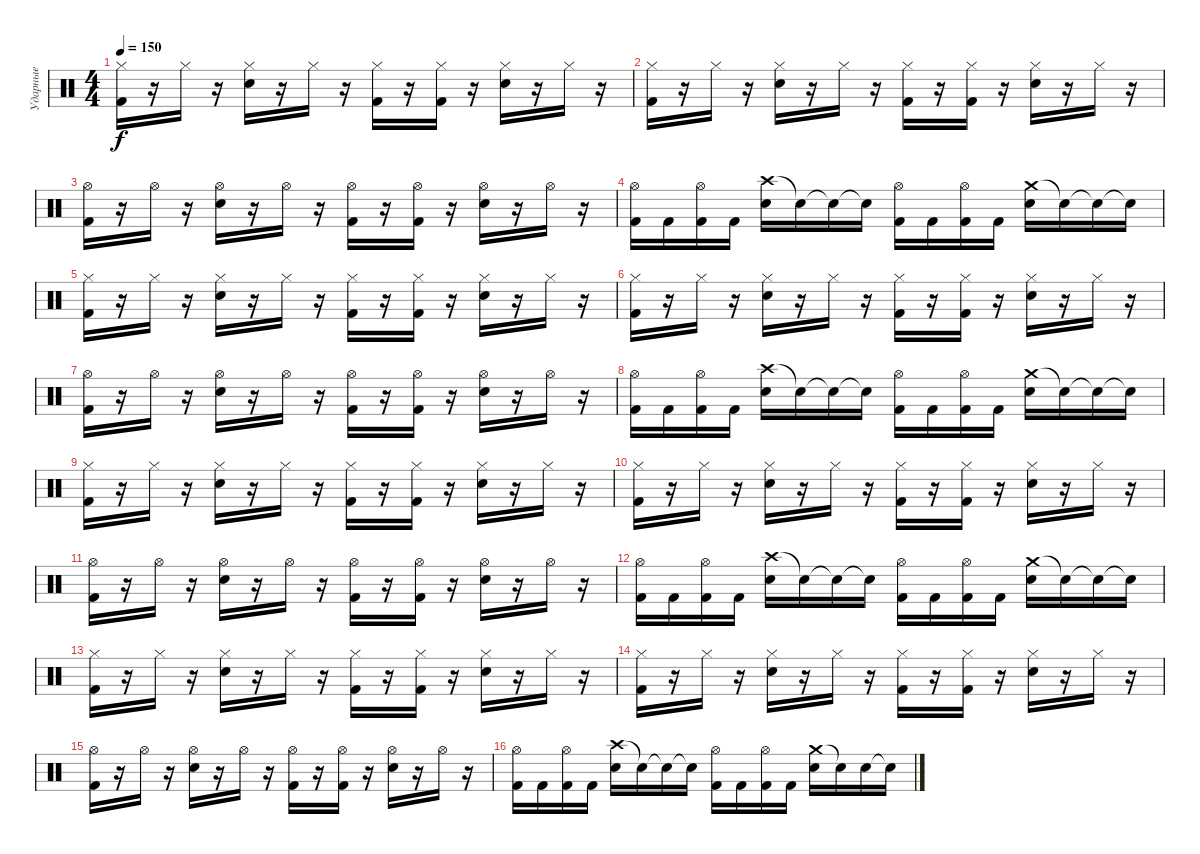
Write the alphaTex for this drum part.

\track ("Ударные" "Ударные") {instrument percussion}
\staff {score}
\articulation defaults
\ts (4 4)
\tempo 150
\clef neutral
\ks c
("Hi-Hat (closed)" "Kick (hit) 2").16{dy f} r.16 "Hi-Hat (closed)".16 r.16 ("Hi-Hat (closed)" "Snare (hit) 2").16 r.16 "Hi-Hat (closed)".16 r.16 ("Hi-Hat (closed)" "Kick (hit) 2").16 r.16 ("Hi-Hat (closed)" "Kick (hit) 2").16 r.16 ("Hi-Hat (closed)" "Snare (hit) 2").16 r.16 "Hi-Hat (closed)".16 r.16 |
("Hi-Hat (closed)" "Kick (hit) 2").16 r.16 "Hi-Hat (closed)".16 r.16 ("Hi-Hat (closed)" "Snare (hit) 2").16 r.16 "Hi-Hat (closed)".16 r.16 ("Hi-Hat (closed)" "Kick (hit) 2").16 r.16 ("Hi-Hat (closed)" "Kick (hit) 2").16 r.16 ("Hi-Hat (closed)" "Snare (hit) 2").16 r.16 "Hi-Hat (closed)".16 r.16 |
("Hi-Hat (open)" "Kick (hit) 2").16 r.16 "Hi-Hat (open)".16 r.16 ("Hi-Hat (open)" "Snare (hit) 2").16 r.16 "Hi-Hat (open)".16 r.16 ("Hi-Hat (open)" "Kick (hit) 2").16 r.16 ("Hi-Hat (open)" "Kick (hit) 2").16 r.16 ("Hi-Hat (open)" "Snare (hit) 2").16 r.16 "Hi-Hat (open)".16 r.16 |
("Hi-Hat (open)" "Kick (hit) 2").16 "Kick (hit) 2".16 ("Hi-Hat (open)" "Kick (hit) 2").16 "Kick (hit) 2".16 ("Crash high (hit)" "Snare (hit) 2").16 "Snare (hit)"{t}.16 "Snare (hit)"{t}.16 "Snare (hit)"{t}.16 ("Hi-Hat (open)" "Kick (hit) 2").16 "Kick (hit) 2".16 ("Hi-Hat (open)" "Kick (hit) 2").16 "Kick (hit) 2".16 ("Crash medium (hit)" "Snare (hit) 2").16 "Snare (hit)"{t}.16 "Snare (hit)"{t}.16 "Snare (hit)"{t}.16 |
("Hi-Hat (closed)" "Kick (hit) 2").16 r.16 "Hi-Hat (closed)".16 r.16 ("Hi-Hat (closed)" "Snare (hit) 2").16 r.16 "Hi-Hat (closed)".16 r.16 ("Hi-Hat (closed)" "Kick (hit) 2").16 r.16 ("Hi-Hat (closed)" "Kick (hit) 2").16 r.16 ("Hi-Hat (closed)" "Snare (hit) 2").16 r.16 "Hi-Hat (closed)".16 r.16 |
("Hi-Hat (closed)" "Kick (hit) 2").16 r.16 "Hi-Hat (closed)".16 r.16 ("Hi-Hat (closed)" "Snare (hit) 2").16 r.16 "Hi-Hat (closed)".16 r.16 ("Hi-Hat (closed)" "Kick (hit) 2").16 r.16 ("Hi-Hat (closed)" "Kick (hit) 2").16 r.16 ("Hi-Hat (closed)" "Snare (hit) 2").16 r.16 "Hi-Hat (closed)".16 r.16 |
("Hi-Hat (open)" "Kick (hit) 2").16 r.16 "Hi-Hat (open)".16 r.16 ("Hi-Hat (open)" "Snare (hit) 2").16 r.16 "Hi-Hat (open)".16 r.16 ("Hi-Hat (open)" "Kick (hit) 2").16 r.16 ("Hi-Hat (open)" "Kick (hit) 2").16 r.16 ("Hi-Hat (open)" "Snare (hit) 2").16 r.16 "Hi-Hat (open)".16 r.16 |
("Hi-Hat (open)" "Kick (hit) 2").16 "Kick (hit) 2".16 ("Hi-Hat (open)" "Kick (hit) 2").16 "Kick (hit) 2".16 ("Crash high (hit)" "Snare (hit) 2").16 "Snare (hit)"{t}.16 "Snare (hit)"{t}.16 "Snare (hit)"{t}.16 ("Hi-Hat (open)" "Kick (hit) 2").16 "Kick (hit) 2".16 ("Hi-Hat (open)" "Kick (hit) 2").16 "Kick (hit) 2".16 ("Crash medium (hit)" "Snare (hit) 2").16 "Snare (hit)"{t}.16 "Snare (hit)"{t}.16 "Snare (hit)"{t}.16 |
("Hi-Hat (closed)" "Kick (hit) 2").16 r.16 "Hi-Hat (closed)".16 r.16 ("Hi-Hat (closed)" "Snare (hit) 2").16 r.16 "Hi-Hat (closed)".16 r.16 ("Hi-Hat (closed)" "Kick (hit) 2").16 r.16 ("Hi-Hat (closed)" "Kick (hit) 2").16 r.16 ("Hi-Hat (closed)" "Snare (hit) 2").16 r.16 "Hi-Hat (closed)".16 r.16 |
("Hi-Hat (closed)" "Kick (hit) 2").16 r.16 "Hi-Hat (closed)".16 r.16 ("Hi-Hat (closed)" "Snare (hit) 2").16 r.16 "Hi-Hat (closed)".16 r.16 ("Hi-Hat (closed)" "Kick (hit) 2").16 r.16 ("Hi-Hat (closed)" "Kick (hit) 2").16 r.16 ("Hi-Hat (closed)" "Snare (hit) 2").16 r.16 "Hi-Hat (closed)".16 r.16 |
("Hi-Hat (open)" "Kick (hit) 2").16 r.16 "Hi-Hat (open)".16 r.16 ("Hi-Hat (open)" "Snare (hit) 2").16 r.16 "Hi-Hat (open)".16 r.16 ("Hi-Hat (open)" "Kick (hit) 2").16 r.16 ("Hi-Hat (open)" "Kick (hit) 2").16 r.16 ("Hi-Hat (open)" "Snare (hit) 2").16 r.16 "Hi-Hat (open)".16 r.16 |
("Hi-Hat (open)" "Kick (hit) 2").16 "Kick (hit) 2".16 ("Hi-Hat (open)" "Kick (hit) 2").16 "Kick (hit) 2".16 ("Crash high (hit)" "Snare (hit) 2").16 "Snare (hit)"{t}.16 "Snare (hit)"{t}.16 "Snare (hit)"{t}.16 ("Hi-Hat (open)" "Kick (hit) 2").16 "Kick (hit) 2".16 ("Hi-Hat (open)" "Kick (hit) 2").16 "Kick (hit) 2".16 ("Crash medium (hit)" "Snare (hit) 2").16 "Snare (hit)"{t}.16 "Snare (hit)"{t}.16 "Snare (hit)"{t}.16 |
("Hi-Hat (closed)" "Kick (hit) 2").16 r.16 "Hi-Hat (closed)".16 r.16 ("Hi-Hat (closed)" "Snare (hit) 2").16 r.16 "Hi-Hat (closed)".16 r.16 ("Hi-Hat (closed)" "Kick (hit) 2").16 r.16 ("Hi-Hat (closed)" "Kick (hit) 2").16 r.16 ("Hi-Hat (closed)" "Snare (hit) 2").16 r.16 "Hi-Hat (closed)".16 r.16 |
("Hi-Hat (closed)" "Kick (hit) 2").16 r.16 "Hi-Hat (closed)".16 r.16 ("Hi-Hat (closed)" "Snare (hit) 2").16 r.16 "Hi-Hat (closed)".16 r.16 ("Hi-Hat (closed)" "Kick (hit) 2").16 r.16 ("Hi-Hat (closed)" "Kick (hit) 2").16 r.16 ("Hi-Hat (closed)" "Snare (hit) 2").16 r.16 "Hi-Hat (closed)".16 r.16 |
("Hi-Hat (open)" "Kick (hit) 2").16 r.16 "Hi-Hat (open)".16 r.16 ("Hi-Hat (open)" "Snare (hit) 2").16 r.16 "Hi-Hat (open)".16 r.16 ("Hi-Hat (open)" "Kick (hit) 2").16 r.16 ("Hi-Hat (open)" "Kick (hit) 2").16 r.16 ("Hi-Hat (open)" "Snare (hit) 2").16 r.16 "Hi-Hat (open)".16 r.16 |
("Hi-Hat (open)" "Kick (hit) 2").16 "Kick (hit) 2".16 ("Hi-Hat (open)" "Kick (hit) 2").16 "Kick (hit) 2".16 ("Crash high (hit)" "Snare (hit) 2").16 "Snare (hit)"{t}.16 "Snare (hit)"{t}.16 "Snare (hit)"{t}.16 ("Hi-Hat (open)" "Kick (hit) 2").16 "Kick (hit) 2".16 ("Hi-Hat (open)" "Kick (hit) 2").16 "Kick (hit) 2".16 ("Crash medium (hit)" "Snare (hit) 2").16 "Snare (hit)"{t}.16 "Snare (hit) 2".16 "Snare (hit)"{t}.16
